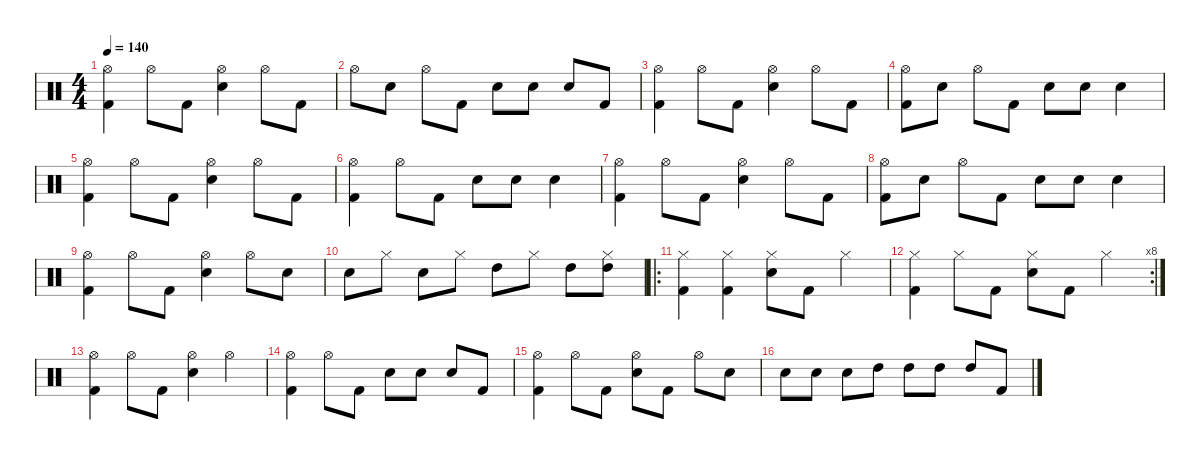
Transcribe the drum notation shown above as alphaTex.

\defaultSystemsLayout 4
\hideDynamics
\bracketExtendMode nobrackets
\singleTrackTrackNamePolicy hidden
\multiTrackTrackNamePolicy hidden
\firstSystemTrackNameMode fullname
\firstSystemTrackNameOrientation horizontal
\otherSystemsTrackNameOrientation horizontal
\track ("Bill Ward" "drm.") {instrument percussion}
\staff {score}
\articulation defaults
\ts (4 4)
\tempo 140
\clef neutral
\ks c
("Hi-Hat (open)" "Kick (hit) 2").4{dy f beam Down} "Hi-Hat (open)".8{beam Down} "Kick (hit) 2".8{beam Down} ("Hi-Hat (open)" "Snare (hit) 2").4{beam Down} "Hi-Hat (open)".8{beam Down} "Kick (hit) 2".8{beam Down} |
"Hi-Hat (open)".8{beam Down} "Snare (hit) 2".8{beam Down} "Hi-Hat (open)".8{beam Down} "Kick (hit) 2".8{beam Down} "Snare (hit) 2".8{beam Down} "Snare (hit) 2".8{beam Down} "Snare (hit) 2".8{beam Up} "Kick (hit) 2".8{beam Up} |
("Hi-Hat (open)" "Kick (hit) 2").4{beam Down} "Hi-Hat (open)".8{beam Down} "Kick (hit) 2".8{beam Down} ("Hi-Hat (open)" "Snare (hit) 2").4{beam Down} "Hi-Hat (open)".8{beam Down} "Kick (hit) 2".8{beam Down} |
("Hi-Hat (open)" "Kick (hit) 2").8{beam Down} "Snare (hit) 2".8{beam Down} "Hi-Hat (open)".8{beam Down} "Kick (hit) 2".8{beam Down} "Snare (hit) 2".8{beam Down} "Snare (hit) 2".8{beam Down} "Snare (hit) 2".4{beam Down} |
("Hi-Hat (open)" "Kick (hit) 2").4{beam Down} "Hi-Hat (open)".8{beam Down} "Kick (hit) 2".8{beam Down} ("Hi-Hat (open)" "Snare (hit) 2").4{beam Down} "Hi-Hat (open)".8{beam Down} "Kick (hit) 2".8{beam Down} |
("Hi-Hat (open)" "Kick (hit) 2").4{beam Down} "Hi-Hat (open)".8{beam Down} "Kick (hit) 2".8{beam Down} "Snare (hit) 2".8{beam Down} "Snare (hit) 2".8{beam Down} "Snare (hit) 2".4{beam Down} |
("Hi-Hat (open)" "Kick (hit) 2").4{beam Down} "Hi-Hat (open)".8{beam Down} "Kick (hit) 2".8{beam Down} ("Hi-Hat (open)" "Snare (hit) 2").4{beam Down} "Hi-Hat (open)".8{beam Down} "Kick (hit) 2".8{beam Down} |
("Hi-Hat (open)" "Kick (hit) 2").8{beam Down} "Snare (hit) 2".8{beam Down} "Hi-Hat (open)".8{beam Down} "Kick (hit) 2".8{beam Down} "Snare (hit) 2".8{beam Down} "Snare (hit) 2".8{beam Down} "Snare (hit) 2".4{beam Down} |
("Hi-Hat (open)" "Kick (hit) 2").4{beam Down} "Hi-Hat (open)".8{beam Down} "Kick (hit) 2".8{beam Down} ("Hi-Hat (open)" "Snare (hit) 2").4{beam Down} "Hi-Hat (open)".8{beam Down} "Snare (hit) 2".8{beam Down} |
"Snare (hit) 2".8{beam Down} "Hi-Hat (closed)".8{beam Down} "Snare (hit) 2".8{beam Down} "Hi-Hat (closed)".8{beam Down} "High Tom (hit)".8{beam Down} "Hi-Hat (closed)".8{beam Down} "High Tom (hit)".8{beam Down} ("Hi-Hat (closed)" "High Tom (hit)").8{beam Down} |
\ro
("Hi-Hat (closed)" "Kick (hit) 2").4{beam Down} ("Hi-Hat (closed)" "Kick (hit) 2").4{beam Down} ("Hi-Hat (closed)" "Snare (hit) 2").8{beam Down} "Kick (hit) 2".8{beam Down} "Hi-Hat (closed)".4{beam Down} |
\rc 8
("Hi-Hat (closed)" "Kick (hit) 2").4{beam Down} "Hi-Hat (closed)".8{beam Down} "Kick (hit) 2".8{beam Down} ("Hi-Hat (closed)" "Snare (hit) 2").8{beam Down} "Kick (hit) 2".8{beam Down} "Hi-Hat (closed)".4{beam Down} |
("Hi-Hat (open)" "Kick (hit) 2").4{beam Down} "Hi-Hat (open)".8{beam Down} "Kick (hit) 2".8{beam Down} ("Hi-Hat (open)" "Snare (hit) 2").4{beam Down} "Hi-Hat (open)".4{beam Down} |
("Hi-Hat (open)" "Kick (hit) 2").4{beam Down} "Hi-Hat (open)".8{beam Down} "Kick (hit) 2".8{beam Down} "Snare (hit) 2".8{beam Down} "Snare (hit) 2".8{beam Down} "Snare (hit) 2".8{beam Up} "Kick (hit) 2".8{beam Up} |
("Hi-Hat (open)" "Kick (hit) 2").4{beam Down} "Hi-Hat (open)".8{beam Down} "Kick (hit) 2".8{beam Down} ("Hi-Hat (open)" "Snare (hit) 2").8{beam Down} "Kick (hit) 2".8{beam Down} "Hi-Hat (open)".8{beam Down} "Snare (hit) 2".8{beam Down} |
"Snare (hit) 2".8{beam Down} "Snare (hit) 2".8{beam Down} "Snare (hit) 2".8{beam Down} "High Tom (hit)".8{beam Down} "High Tom (hit)".8{beam Down} "High Tom (hit)".8{beam Down} "High Tom (hit)".8{beam Up} "Kick (hit) 2".8{beam Up}
